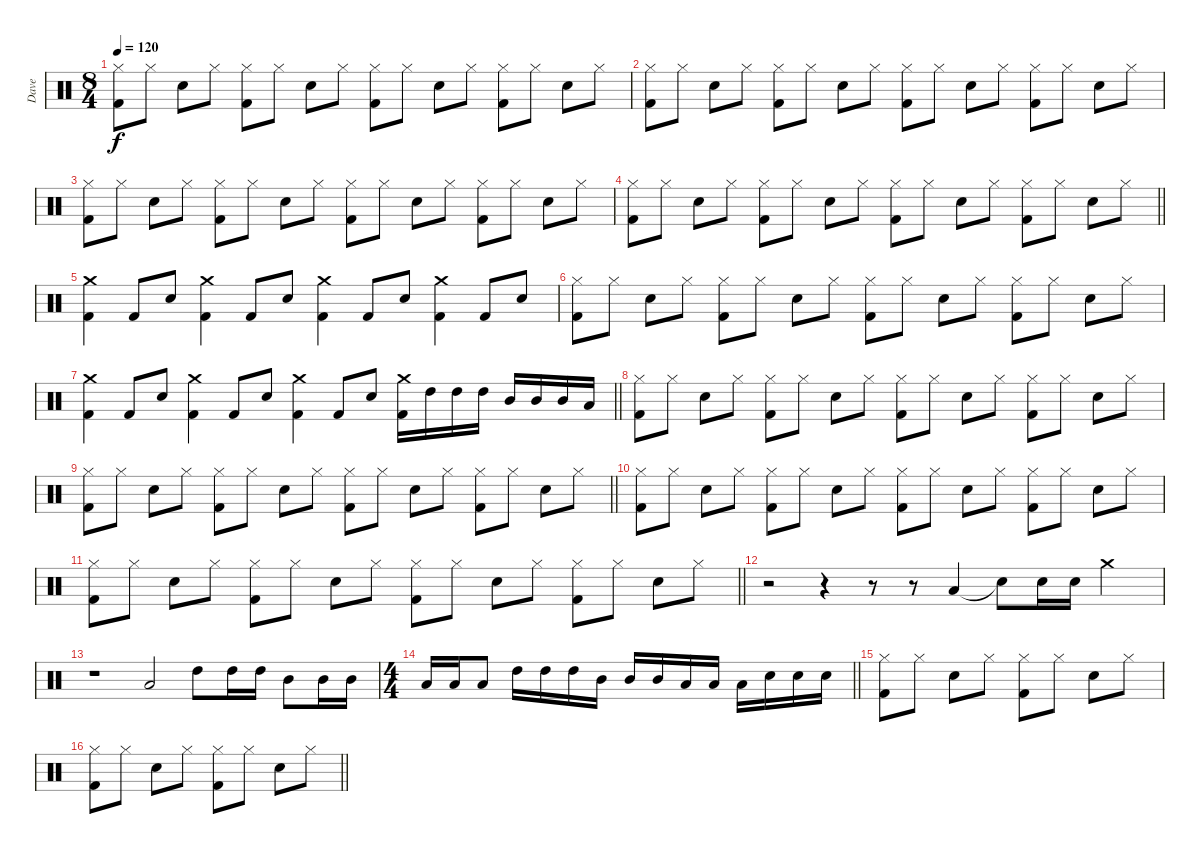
\track ("Dave" "Dave") {instrument percussion}
\staff {score}
\articulation defaults
\ts (8 4)
\section ("" "")
\tempo 120
\clef neutral
\ks c
("Hi-Hat (closed)" "Kick (hit) 2").8{dy f} "Hi-Hat (closed)".8 "Snare (hit) 2".8 "Hi-Hat (closed)".8 ("Hi-Hat (closed)" "Kick (hit) 2").8 "Hi-Hat (closed)".8 "Snare (hit) 2".8 "Hi-Hat (closed)".8 ("Hi-Hat (closed)" "Kick (hit) 2").8 "Hi-Hat (closed)".8 "Snare (hit) 2".8 "Hi-Hat (closed)".8 ("Hi-Hat (closed)" "Kick (hit) 2").8 "Hi-Hat (closed)".8 "Snare (hit) 2".8 "Hi-Hat (closed)".8 |
("Hi-Hat (closed)" "Kick (hit) 2").8 "Hi-Hat (closed)".8 "Snare (hit) 2".8 "Hi-Hat (closed)".8 ("Hi-Hat (closed)" "Kick (hit) 2").8 "Hi-Hat (closed)".8 "Snare (hit) 2".8 "Hi-Hat (closed)".8 ("Hi-Hat (closed)" "Kick (hit) 2").8 "Hi-Hat (closed)".8 "Snare (hit) 2".8 "Hi-Hat (closed)".8 ("Hi-Hat (closed)" "Kick (hit) 2").8 "Hi-Hat (closed)".8 "Snare (hit) 2".8 "Hi-Hat (closed)".8 |
("Hi-Hat (closed)" "Kick (hit) 2").8 "Hi-Hat (closed)".8 "Snare (hit) 2".8 "Hi-Hat (closed)".8 ("Hi-Hat (closed)" "Kick (hit) 2").8 "Hi-Hat (closed)".8 "Snare (hit) 2".8 "Hi-Hat (closed)".8 ("Hi-Hat (closed)" "Kick (hit) 2").8 "Hi-Hat (closed)".8 "Snare (hit) 2".8 "Hi-Hat (closed)".8 ("Hi-Hat (closed)" "Kick (hit) 2").8 "Hi-Hat (closed)".8 "Snare (hit) 2".8 "Hi-Hat (closed)".8 |
\barLineRight lightlight
("Hi-Hat (closed)" "Kick (hit) 2").8 "Hi-Hat (closed)".8 "Snare (hit) 2".8 "Hi-Hat (closed)".8 ("Hi-Hat (closed)" "Kick (hit) 2").8 "Hi-Hat (closed)".8 "Snare (hit) 2".8 "Hi-Hat (closed)".8 ("Hi-Hat (closed)" "Kick (hit) 2").8 "Hi-Hat (closed)".8 "Snare (hit) 2".8 "Hi-Hat (closed)".8 ("Hi-Hat (closed)" "Kick (hit) 2").8 "Hi-Hat (closed)".8 "Snare (hit) 2".8 "Hi-Hat (closed)".8 |
\section ("" "")
("Crash medium (hit)" "Kick (hit) 2").4 "Kick (hit) 2".8 "Snare (hit) 2".8 ("Crash medium (hit)" "Kick (hit) 2").4 "Kick (hit) 2".8 "Snare (hit) 2".8 ("Crash medium (hit)" "Kick (hit) 2").4 "Kick (hit) 2".8 "Snare (hit) 2".8 ("Crash medium (hit)" "Kick (hit) 2").4 "Kick (hit) 2".8 "Snare (hit) 2".8 |
("Hi-Hat (closed)" "Kick (hit) 2").8 "Hi-Hat (closed)".8 "Snare (hit) 2".8 "Hi-Hat (closed)".8 ("Hi-Hat (closed)" "Kick (hit) 2").8 "Hi-Hat (closed)".8 "Snare (hit) 2".8 "Hi-Hat (closed)".8 ("Hi-Hat (closed)" "Kick (hit) 2").8 "Hi-Hat (closed)".8 "Snare (hit) 2".8 "Hi-Hat (closed)".8 ("Hi-Hat (closed)" "Kick (hit) 2").8 "Hi-Hat (closed)".8 "Snare (hit) 2".8 "Hi-Hat (closed)".8 |
\barLineRight lightlight
("Crash medium (hit)" "Kick (hit) 2").4 "Kick (hit) 2".8 "Snare (hit) 2".8 ("Crash medium (hit)" "Kick (hit) 2").4 "Kick (hit) 2".8 "Snare (hit) 2".8 ("Crash medium (hit)" "Kick (hit) 2").4 "Kick (hit) 2".8 "Snare (hit) 2".8 ("Crash medium (hit)" "Kick (hit) 2").16 "High Tom (hit)".16 "High Tom (hit)".16 "High Tom (hit)".16 "Mid Tom (hit)".16 "Mid Tom (hit)".16 "Mid Tom (hit)".16 "Low Tom (hit)".16 |
\section ("" "")
("Hi-Hat (closed)" "Kick (hit) 2").8 "Hi-Hat (closed)".8 "Snare (hit) 2".8 "Hi-Hat (closed)".8 ("Hi-Hat (closed)" "Kick (hit) 2").8 "Hi-Hat (closed)".8 "Snare (hit) 2".8 "Hi-Hat (closed)".8 ("Hi-Hat (closed)" "Kick (hit) 2").8 "Hi-Hat (closed)".8 "Snare (hit) 2".8 "Hi-Hat (closed)".8 ("Hi-Hat (closed)" "Kick (hit) 2").8 "Hi-Hat (closed)".8 "Snare (hit) 2".8 "Hi-Hat (closed)".8 |
\barLineRight lightlight
("Hi-Hat (closed)" "Kick (hit) 2").8 "Hi-Hat (closed)".8 "Snare (hit) 2".8 "Hi-Hat (closed)".8 ("Hi-Hat (closed)" "Kick (hit) 2").8 "Hi-Hat (closed)".8 "Snare (hit) 2".8 "Hi-Hat (closed)".8 ("Hi-Hat (closed)" "Kick (hit) 2").8 "Hi-Hat (closed)".8 "Snare (hit) 2".8 "Hi-Hat (closed)".8 ("Hi-Hat (closed)" "Kick (hit) 2").8 "Hi-Hat (closed)".8 "Snare (hit) 2".8 "Hi-Hat (closed)".8 |
("Hi-Hat (closed)" "Kick (hit) 2").8 "Hi-Hat (closed)".8 "Snare (hit) 2".8 "Hi-Hat (closed)".8 ("Hi-Hat (closed)" "Kick (hit) 2").8 "Hi-Hat (closed)".8 "Snare (hit) 2".8 "Hi-Hat (closed)".8 ("Hi-Hat (closed)" "Kick (hit) 2").8 "Hi-Hat (closed)".8 "Snare (hit) 2".8 "Hi-Hat (closed)".8 ("Hi-Hat (closed)" "Kick (hit) 2").8 "Hi-Hat (closed)".8 "Snare (hit) 2".8 "Hi-Hat (closed)".8 |
\barLineRight lightlight
("Hi-Hat (closed)" "Kick (hit) 2").8 "Hi-Hat (closed)".8 "Snare (hit) 2".8 "Hi-Hat (closed)".8 ("Hi-Hat (closed)" "Kick (hit) 2").8 "Hi-Hat (closed)".8 "Snare (hit) 2".8 "Hi-Hat (closed)".8 ("Hi-Hat (closed)" "Kick (hit) 2").8 "Hi-Hat (closed)".8 "Snare (hit) 2".8 "Hi-Hat (closed)".8 ("Hi-Hat (closed)" "Kick (hit) 2").8 "Hi-Hat (closed)".8 "Snare (hit) 2".8 "Hi-Hat (closed)".8 |
r.2 r.4 r.8 r.8 "Low Tom (hit)".4 "Snare (hit)"{t}.8 "Snare (hit) 2".16 "Snare (hit) 2".16 "Crash medium (hit)".2 |
r.1 "Low Tom (hit)".2 "High Tom (hit)".8 "High Tom (hit)".16 "High Tom (hit)".16 "Mid Tom (hit)".8 "Mid Tom (hit)".16 "Mid Tom (hit)".16 |
\ts (4 4)
\barLineRight lightlight "Low Tom (hit)".16 "Low Tom (hit)".16 "Low Tom (hit)".8 "High Tom (hit)".16 "High Tom (hit)".16 "High Tom (hit)".16 "Mid Tom (hit)".16 "Mid Tom (hit)".16 "Mid Tom (hit)".16 "Low Tom (hit)".16 "Low Tom (hit)".16 "Low Tom (hit)".16 "Snare (hit) 2".16 "Snare (hit) 2".16 "Snare (hit) 2".16
|
\section ("" "")
("Hi-Hat (closed)" "Kick (hit) 2").8 "Hi-Hat (closed)".8 "Snare (hit) 2".8 "Hi-Hat (closed)".8 ("Hi-Hat (closed)" "Kick (hit) 2").8 "Hi-Hat (closed)".8 "Snare (hit) 2".8 "Hi-Hat (closed)".8 |
\barLineRight lightlight
("Hi-Hat (closed)" "Kick (hit) 2").8 "Hi-Hat (closed)".8 "Snare (hit) 2".8 "Hi-Hat (closed)".8 ("Hi-Hat (closed)" "Kick (hit) 2").8 "Hi-Hat (closed)".8 "Snare (hit) 2".8 "Hi-Hat (closed)".8
